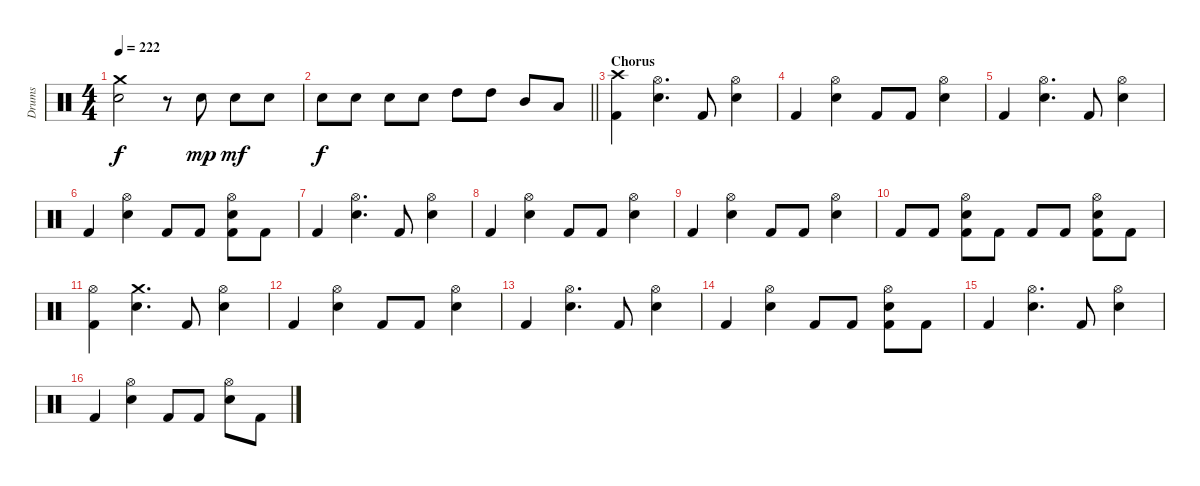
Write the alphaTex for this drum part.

\track ("Drums" "Drums") {instrument percussion}
\staff {score}
\articulation defaults
\ts (4 4)
\tempo 222
\clef neutral
\ks c
("Crash medium (hit)" "Snare (hit) 2").2{dy f} r.8 "Snare (hit) 2".8{dy mp} "Snare (hit) 2".8{dy mf} "Snare (hit) 2".8 |
\barLineRight lightlight "Snare (hit) 2".8{dy f} "Snare (hit) 2".8 "Snare (hit) 2".8 "Snare (hit) 2".8 "High Tom (hit)".8 "High Tom (hit)".8 "Mid Tom (hit)".8 "Low Tom (hit)".8
|
\section ("" "Chorus")
("Crash high (hit)" "Kick (hit) 2").4 ("Hi-Hat (open)" "Snare (hit) 2").4{d} "Kick (hit) 2".8 ("Hi-Hat (open)" "Snare (hit) 2").4 |
"Kick (hit) 2".4 ("Hi-Hat (open)" "Snare (hit) 2").4 "Kick (hit) 2".8 "Kick (hit) 2".8 ("Hi-Hat (open)" "Snare (hit) 2").4 |
"Kick (hit) 2".4 ("Hi-Hat (open)" "Snare (hit) 2").4{d} "Kick (hit) 2".8 ("Hi-Hat (open)" "Snare (hit) 2").4 |
"Kick (hit) 2".4 ("Hi-Hat (open)" "Snare (hit) 2").4 "Kick (hit) 2".8 "Kick (hit) 2".8 ("Hi-Hat (open)" "Snare (hit) 2" "Kick (hit) 2").8 "Kick (hit) 2".8 |
"Kick (hit) 2".4 ("Hi-Hat (open)" "Snare (hit) 2").4{d} "Kick (hit) 2".8 ("Hi-Hat (open)" "Snare (hit) 2").4 |
"Kick (hit) 2".4 ("Hi-Hat (open)" "Snare (hit) 2").4 "Kick (hit) 2".8 "Kick (hit) 2".8 ("Hi-Hat (open)" "Snare (hit) 2").4 |
"Kick (hit) 2".4 ("Hi-Hat (open)" "Snare (hit) 2").4 "Kick (hit) 2".8 "Kick (hit) 2".8 ("Hi-Hat (open)" "Snare (hit) 2").4 |
"Kick (hit) 2".8 "Kick (hit) 2".8 ("Hi-Hat (open)" "Snare (hit) 2" "Kick (hit) 2").8 "Kick (hit) 2".8 "Kick (hit) 2".8 "Kick (hit) 2".8 ("Hi-Hat (open)" "Snare (hit) 2" "Kick (hit) 2").8 "Kick (hit) 2".8 |
("Hi-Hat (open)" "Kick (hit) 2").4 ("Crash medium (hit)" "Snare (hit) 2").4{d} "Kick (hit) 2".8 ("Hi-Hat (open)" "Snare (hit) 2").4 |
"Kick (hit) 2".4 ("Hi-Hat (open)" "Snare (hit) 2").4 "Kick (hit) 2".8 "Kick (hit) 2".8 ("Hi-Hat (open)" "Snare (hit) 2").4 |
"Kick (hit) 2".4 ("Hi-Hat (open)" "Snare (hit) 2").4{d} "Kick (hit) 2".8 ("Hi-Hat (open)" "Snare (hit) 2").4 |
"Kick (hit) 2".4 ("Hi-Hat (open)" "Snare (hit) 2").4 "Kick (hit) 2".8 "Kick (hit) 2".8 ("Hi-Hat (open)" "Snare (hit) 2" "Kick (hit) 2").8 "Kick (hit) 2".8 |
"Kick (hit) 2".4 ("Hi-Hat (open)" "Snare (hit) 2").4{d} "Kick (hit) 2".8 ("Hi-Hat (open)" "Snare (hit) 2").4 |
"Kick (hit) 2".4 ("Hi-Hat (open)" "Snare (hit) 2").4 "Kick (hit) 2".8 "Kick (hit) 2".8 ("Hi-Hat (open)" "Snare (hit) 2").8 "Kick (hit) 2".8
